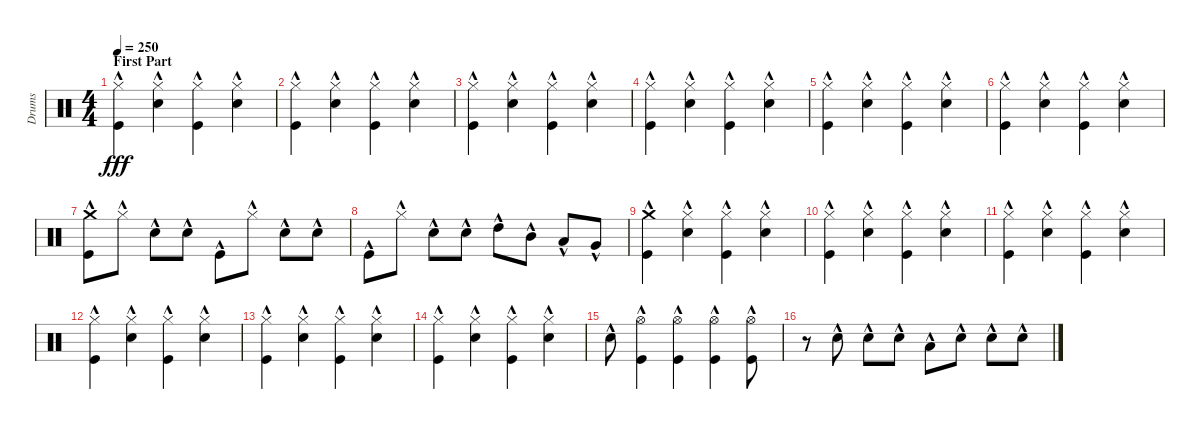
\track ("Drums" "Drums") {instrument percussion}
\staff {score}
\articulation defaults
\ts (4 4)
\section ("" "First Part")
\tempo 250
\clef neutral
\ks c
("Hi-Hat (closed)"{hac} "Kick (hit)"{hac}).4{dy fff} ("Hi-Hat (closed)"{hac} "Snare (hit) 2"{hac}).4 ("Hi-Hat (closed)"{hac} "Kick (hit)"{hac}).4 ("Hi-Hat (closed)"{hac} "Snare (hit) 2"{hac}).4 |
("Hi-Hat (closed)"{hac} "Kick (hit)"{hac}).4 ("Hi-Hat (closed)"{hac} "Snare (hit) 2"{hac}).4 ("Hi-Hat (closed)"{hac} "Kick (hit)"{hac}).4 ("Hi-Hat (closed)"{hac} "Snare (hit) 2"{hac}).4 |
("Hi-Hat (closed)"{hac} "Kick (hit)"{hac}).4 ("Hi-Hat (closed)"{hac} "Snare (hit) 2"{hac}).4 ("Hi-Hat (closed)"{hac} "Kick (hit)"{hac}).4 ("Hi-Hat (closed)"{hac} "Snare (hit) 2"{hac}).4 |
("Hi-Hat (closed)"{hac} "Kick (hit)"{hac}).4 ("Hi-Hat (closed)"{hac} "Snare (hit) 2"{hac}).4 ("Hi-Hat (closed)"{hac} "Kick (hit)"{hac}).4 ("Hi-Hat (closed)"{hac} "Snare (hit) 2"{hac}).4 |
("Hi-Hat (closed)"{hac} "Kick (hit)"{hac}).4 ("Hi-Hat (closed)"{hac} "Snare (hit) 2"{hac}).4 ("Hi-Hat (closed)"{hac} "Kick (hit)"{hac}).4 ("Hi-Hat (closed)"{hac} "Snare (hit) 2"{hac}).4 |
("Hi-Hat (closed)"{hac} "Kick (hit)"{hac}).4 ("Hi-Hat (closed)"{hac} "Snare (hit) 2"{hac}).4 ("Hi-Hat (closed)"{hac} "Kick (hit)"{hac}).4 ("Hi-Hat (closed)"{hac} "Snare (hit) 2"{hac}).4 |
("Crash medium (hit)"{hac} "Kick (hit)"{hac}).8 "Hi-Hat (closed)"{hac}.8 "Snare (hit) 2"{hac}.8 "Snare (hit) 2"{hac}.8 "Kick (hit)"{hac}.8 "Hi-Hat (closed)"{hac}.8 "Snare (hit) 2"{hac}.8 "Snare (hit) 2"{hac}.8 |
"Kick (hit)"{hac}.8 "Hi-Hat (closed)"{hac}.8 "Snare (hit) 2"{hac}.8 "Snare (hit) 2"{hac}.8 "High Tom (hit)"{hac}.8 "Mid Tom (hit)"{hac}.8 "Low Tom (hit)"{hac}.8 "Very Low Tom (hit)"{hac}.8 |
("Crash medium (hit)"{hac} "Kick (hit)"{hac}).4 ("Hi-Hat (closed)"{hac} "Snare (hit) 2"{hac}).4 ("Hi-Hat (closed)"{hac} "Kick (hit)"{hac}).4 ("Hi-Hat (closed)"{hac} "Snare (hit) 2"{hac}).4 |
("Hi-Hat (closed)"{hac} "Kick (hit)"{hac}).4 ("Hi-Hat (closed)"{hac} "Snare (hit) 2"{hac}).4 ("Hi-Hat (closed)"{hac} "Kick (hit)"{hac}).4 ("Hi-Hat (closed)"{hac} "Snare (hit) 2"{hac}).4 |
("Hi-Hat (closed)"{hac} "Kick (hit)"{hac}).4 ("Hi-Hat (closed)"{hac} "Snare (hit) 2"{hac}).4 ("Hi-Hat (closed)"{hac} "Kick (hit)"{hac}).4 ("Hi-Hat (closed)"{hac} "Snare (hit) 2"{hac}).4 |
("Hi-Hat (closed)"{hac} "Kick (hit)"{hac}).4 ("Hi-Hat (closed)"{hac} "Snare (hit) 2"{hac}).4 ("Hi-Hat (closed)"{hac} "Kick (hit)"{hac}).4 ("Hi-Hat (closed)"{hac} "Snare (hit) 2"{hac}).4 |
("Hi-Hat (closed)"{hac} "Kick (hit)"{hac}).4 ("Hi-Hat (closed)"{hac} "Snare (hit) 2"{hac}).4 ("Hi-Hat (closed)"{hac} "Kick (hit)"{hac}).4 ("Hi-Hat (closed)"{hac} "Snare (hit) 2"{hac}).4 |
("Hi-Hat (closed)"{hac} "Kick (hit)"{hac}).4 ("Hi-Hat (closed)"{hac} "Snare (hit) 2"{hac}).4 ("Hi-Hat (closed)"{hac} "Kick (hit)"{hac}).4 ("Hi-Hat (closed)"{hac} "Snare (hit) 2"{hac}).4 |
"Snare (hit) 2"{hac}.8 ("Hi-Hat (open)"{hac} "Kick (hit)"{hac}).4 ("Hi-Hat (open)"{hac} "Kick (hit)"{hac}).4 ("Hi-Hat (open)"{hac} "Kick (hit)"{hac}).4 ("Hi-Hat (open)"{hac} "Kick (hit)"{hac}).8 |
r.8 "Snare (hit) 2"{hac}.8 "Snare (hit) 2"{hac}.8 "Snare (hit) 2"{hac}.8 "Low Tom (hit)"{hac}.8 "Snare (hit) 2"{hac}.8 "Snare (hit) 2"{hac}.8 "Snare (hit) 2"{hac}.8
